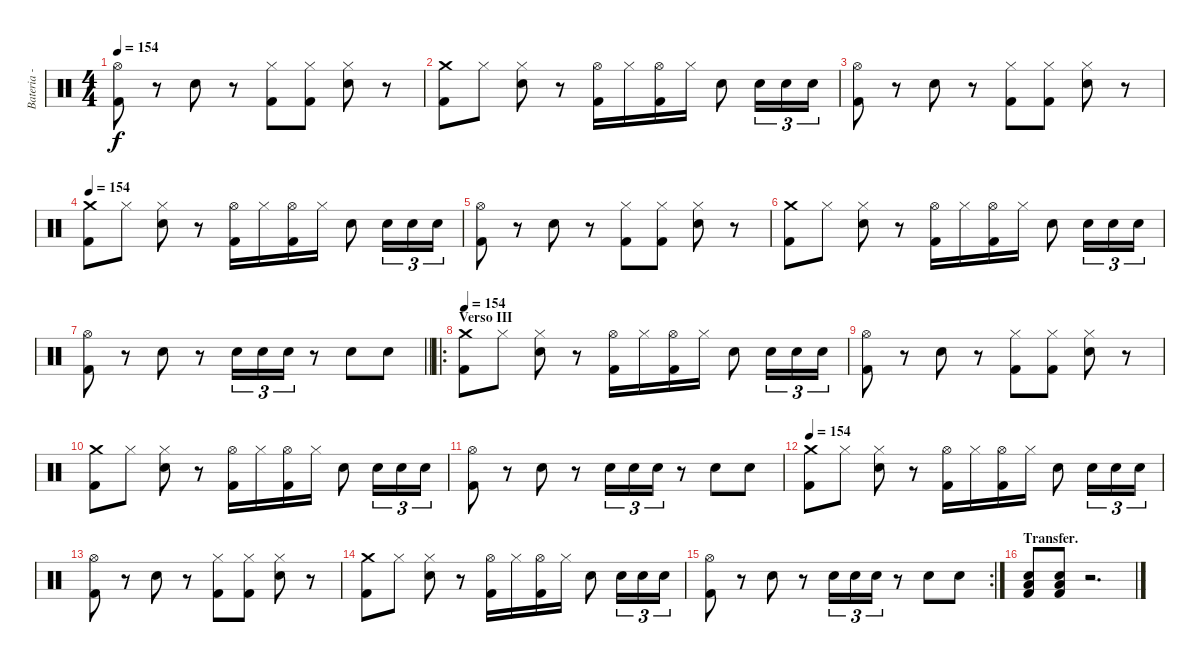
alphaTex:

\track ("Bateria - Larzon " "Bateria - ") {instrument percussion}
\staff {score}
\articulation defaults
\ts (4 4)
\tempo 154
\clef neutral
\ks c
("Kick (hit) 2" "Hi-Hat (open)").8{dy f} r.8 "Snare (hit) 2".8 r.8 ("Kick (hit) 2" "Hi-Hat (closed)").8 ("Kick (hit) 2" "Hi-Hat (closed)").8 ("Snare (hit) 2" "Hi-Hat (closed)").8 r.8 |
("Kick (hit) 2" "Crash medium (hit)").8 "Hi-Hat (closed)".8 ("Snare (hit) 2" "Hi-Hat (closed)").8 r.8 ("Kick (hit) 2" "Hi-Hat (open)").16 "Hi-Hat (closed)".16 ("Kick (hit) 2" "Hi-Hat (open)").16 "Hi-Hat (closed)".16 "Snare (hit) 2".8 "Snare (hit) 2".16{tu (3 2)} "Snare (hit) 2".16{tu (3 2)} "Snare (hit) 2".16{tu (3 2)} |
("Kick (hit) 2" "Hi-Hat (open)").8 r.8 "Snare (hit) 2".8 r.8 ("Kick (hit) 2" "Hi-Hat (closed)").8 ("Kick (hit) 2" "Hi-Hat (closed)").8 ("Snare (hit) 2" "Hi-Hat (closed)").8 r.8 |
\tempo 154
("Kick (hit) 2" "Crash medium (hit)").8 "Hi-Hat (closed)".8 ("Snare (hit) 2" "Hi-Hat (closed)").8 r.8 ("Kick (hit) 2" "Hi-Hat (open)").16 "Hi-Hat (closed)".16 ("Kick (hit) 2" "Hi-Hat (open)").16 "Hi-Hat (closed)".16 "Snare (hit) 2".8 "Snare (hit) 2".16{tu (3 2)} "Snare (hit) 2".16{tu (3 2)} "Snare (hit) 2".16{tu (3 2)} |
("Kick (hit) 2" "Hi-Hat (open)").8 r.8 "Snare (hit) 2".8 r.8 ("Kick (hit) 2" "Hi-Hat (closed)").8 ("Kick (hit) 2" "Hi-Hat (closed)").8 ("Snare (hit) 2" "Hi-Hat (closed)").8 r.8 |
("Kick (hit) 2" "Crash medium (hit)").8 "Hi-Hat (closed)".8 ("Snare (hit) 2" "Hi-Hat (closed)").8 r.8 ("Kick (hit) 2" "Hi-Hat (open)").16 "Hi-Hat (closed)".16 ("Kick (hit) 2" "Hi-Hat (open)").16 "Hi-Hat (closed)".16 "Snare (hit) 2".8 "Snare (hit) 2".16{tu (3 2)} "Snare (hit) 2".16{tu (3 2)} "Snare (hit) 2".16{tu (3 2)} |
\barLineRight lightlight
("Kick (hit) 2" "Hi-Hat (open)").8 r.8 "Snare (hit) 2".8 r.8 "Snare (hit) 2".16{tu (3 2)} "Snare (hit) 2".16{tu (3 2)} "Snare (hit) 2".16{tu (3 2)} r.8 "Snare (hit) 2".8 "Snare (hit) 2".8 |
\ro
\section ("" "Verso III")
\tempo 154
("Kick (hit) 2" "Crash medium (hit)").8 "Hi-Hat (closed)".8 ("Snare (hit) 2" "Hi-Hat (closed)").8 r.8 ("Kick (hit) 2" "Hi-Hat (open)").16 "Hi-Hat (closed)".16 ("Kick (hit) 2" "Hi-Hat (open)").16 "Hi-Hat (closed)".16 "Snare (hit) 2".8 "Snare (hit) 2".16{tu (3 2)} "Snare (hit) 2".16{tu (3 2)} "Snare (hit) 2".16{tu (3 2)} |
("Kick (hit) 2" "Hi-Hat (open)").8 r.8 "Snare (hit) 2".8 r.8 ("Kick (hit) 2" "Hi-Hat (closed)").8 ("Kick (hit) 2" "Hi-Hat (closed)").8 ("Snare (hit) 2" "Hi-Hat (closed)").8 r.8 |
("Kick (hit) 2" "Crash medium (hit)").8 "Hi-Hat (closed)".8 ("Snare (hit) 2" "Hi-Hat (closed)").8 r.8 ("Kick (hit) 2" "Hi-Hat (open)").16 "Hi-Hat (closed)".16 ("Kick (hit) 2" "Hi-Hat (open)").16 "Hi-Hat (closed)".16 "Snare (hit) 2".8 "Snare (hit) 2".16{tu (3 2)} "Snare (hit) 2".16{tu (3 2)} "Snare (hit) 2".16{tu (3 2)} |
("Kick (hit) 2" "Hi-Hat (open)").8 r.8 "Snare (hit) 2".8 r.8 "Snare (hit) 2".16{tu (3 2)} "Snare (hit) 2".16{tu (3 2)} "Snare (hit) 2".16{tu (3 2)} r.8 "Snare (hit) 2".8 "Snare (hit) 2".8 |
\tempo 154
("Kick (hit) 2" "Crash medium (hit)").8 "Hi-Hat (closed)".8 ("Snare (hit) 2" "Hi-Hat (closed)").8 r.8 ("Kick (hit) 2" "Hi-Hat (open)").16 "Hi-Hat (closed)".16 ("Kick (hit) 2" "Hi-Hat (open)").16 "Hi-Hat (closed)".16 "Snare (hit) 2".8 "Snare (hit) 2".16{tu (3 2)} "Snare (hit) 2".16{tu (3 2)} "Snare (hit) 2".16{tu (3 2)} |
("Kick (hit) 2" "Hi-Hat (open)").8 r.8 "Snare (hit) 2".8 r.8 ("Kick (hit) 2" "Hi-Hat (closed)").8 ("Kick (hit) 2" "Hi-Hat (closed)").8 ("Snare (hit) 2" "Hi-Hat (closed)").8 r.8 |
("Kick (hit) 2" "Crash medium (hit)").8 "Hi-Hat (closed)".8 ("Snare (hit) 2" "Hi-Hat (closed)").8 r.8 ("Kick (hit) 2" "Hi-Hat (open)").16 "Hi-Hat (closed)".16 ("Kick (hit) 2" "Hi-Hat (open)").16 "Hi-Hat (closed)".16 "Snare (hit) 2".8 "Snare (hit) 2".16{tu (3 2)} "Snare (hit) 2".16{tu (3 2)} "Snare (hit) 2".16{tu (3 2)} |
\rc 2
("Kick (hit) 2" "Hi-Hat (open)").8 r.8 "Snare (hit) 2".8 r.8 "Snare (hit) 2".16{tu (3 2)} "Snare (hit) 2".16{tu (3 2)} "Snare (hit) 2".16{tu (3 2)} r.8 "Snare (hit) 2".8 "Snare (hit) 2".8 |
\section ("" "Transfer.")
("Snare (hit) 2" "Kick (hit) 2" "Low Floor Tom (hit)").8 ("Snare (hit) 2" "Kick (hit) 2" "Low Floor Tom (hit)").8 r.2{d}
